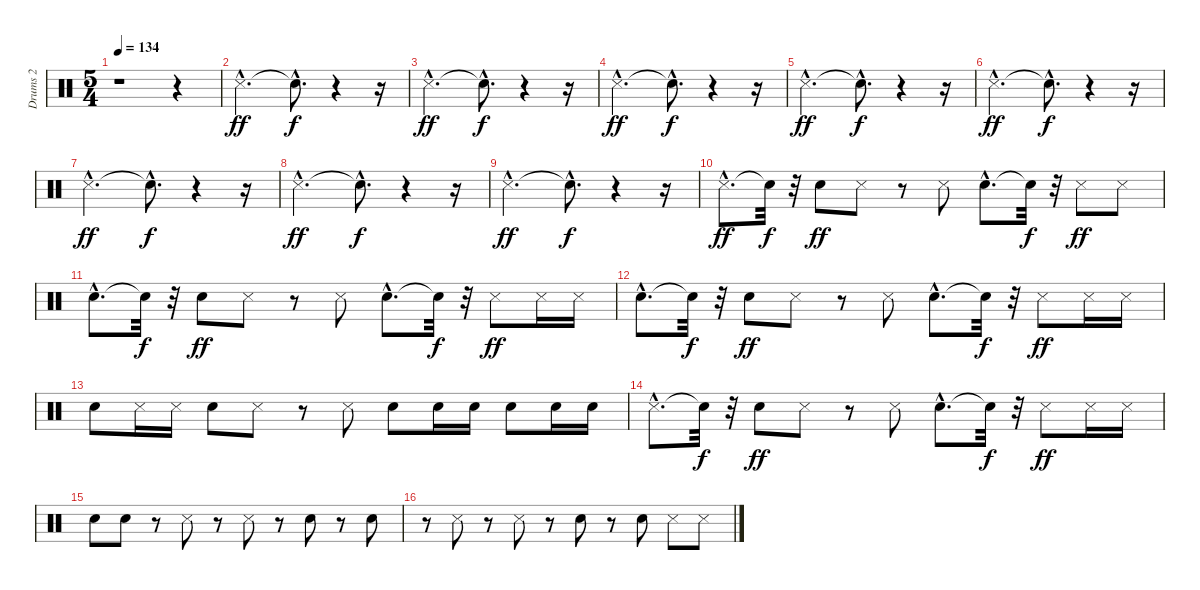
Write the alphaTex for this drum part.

\track ("Drums 2" "Drums 2") {instrument percussion}
\staff {score}
\articulation defaults
\ts (5 4)
\tempo 134
\clef neutral
\ks c
r.1{dy f} r.4 |
"Metronome (hit)"{hac}.2{d dy ff} "Snare (hit)"{hac t}.8{d dy f} r.4 r.16 |
"Metronome (hit)"{hac}.2{d dy ff} "Snare (hit)"{hac t}.8{d dy f} r.4 r.16 |
"Metronome (hit)"{hac}.2{d dy ff} "Snare (hit)"{hac t}.8{d dy f} r.4 r.16 |
"Metronome (hit)"{hac}.2{d dy ff} "Snare (hit)"{hac t}.8{d dy f} r.4 r.16 |
"Metronome (hit)"{hac}.2{d dy ff} "Snare (hit)"{hac t}.8{d dy f} r.4 r.16 |
"Metronome (hit)"{hac}.2{d dy ff} "Snare (hit)"{hac t}.8{d dy f} r.4 r.16 |
"Metronome (hit)"{hac}.2{d dy ff} "Snare (hit)"{hac t}.8{d dy f} r.4 r.16 |
"Metronome (hit)"{hac}.2{d dy ff} "Snare (hit)"{hac t}.8{d dy f} r.4 r.16 |
"Metronome (hit)"{hac}.8{d dy ff} "Snare (hit)"{t}.32{dy f} r.32 "Snare (hit) 2".8{dy ff} "Metronome (hit)".8 r.8 "Metronome (hit)".8 "Snare (hit) 2"{hac}.8{d} "Snare (hit)"{t}.32{dy f} r.32 "Metronome (hit)".8{dy ff} "Metronome (hit)".8 |
"Snare (hit) 2"{hac}.8{d} "Snare (hit)"{t}.32{dy f} r.32 "Snare (hit) 2".8{dy ff} "Metronome (hit)".8 r.8 "Metronome (hit)".8 "Snare (hit) 2"{hac}.8{d} "Snare (hit)"{t}.32{dy f} r.32 "Metronome (hit)".8{dy ff} "Metronome (hit)".16 "Metronome (hit)".16 |
"Snare (hit) 2"{hac}.8{d} "Snare (hit)"{t}.32{dy f} r.32 "Snare (hit) 2".8{dy ff} "Metronome (hit)".8 r.8 "Metronome (hit)".8 "Snare (hit) 2"{hac}.8{d} "Snare (hit)"{t}.32{dy f} r.32 "Metronome (hit)".8{dy ff} "Metronome (hit)".16 "Metronome (hit)".16 |
"Snare (hit) 2".8 "Metronome (hit)".16 "Metronome (hit)".16 "Snare (hit) 2".8 "Metronome (hit)".8 r.8 "Metronome (hit)".8 "Snare (hit) 2".8 "Snare (hit) 2".16 "Snare (hit) 2".16 "Snare (hit) 2".8 "Snare (hit) 2".16 "Snare (hit) 2".16 |
"Metronome (hit)"{hac}.8{d} "Snare (hit)"{t}.32{dy f} r.32 "Snare (hit) 2".8{dy ff} "Metronome (hit)".8 r.8 "Metronome (hit)".8 "Snare (hit) 2"{hac}.8{d} "Snare (hit)"{t}.32{dy f} r.32 "Metronome (hit)".8{dy ff} "Metronome (hit)".16 "Metronome (hit)".16 |
"Snare (hit) 2".8 "Snare (hit) 2".8 r.8 "Metronome (hit)".8 r.8 "Metronome (hit)".8 r.8 "Snare (hit) 2".8 r.8 "Snare (hit) 2".8 |
r.8 "Metronome (hit)".8 r.8 "Metronome (hit)".8 r.8 "Snare (hit) 2".8 r.8 "Snare (hit) 2".8 "Metronome (hit)".8 "Metronome (hit)".8
